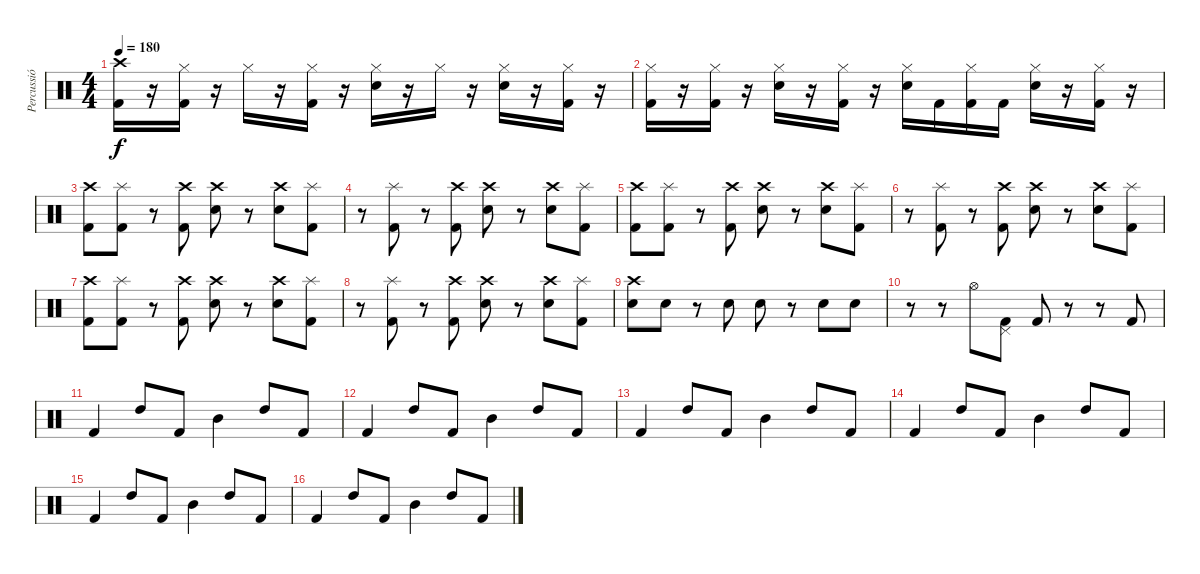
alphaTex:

\track ("Percussió" "Percussió") {instrument percussion}
\staff {score}
\articulation defaults
\ts (4 4)
\tempo 180
\clef neutral
\ks c
("Crash high (hit)" "Kick (hit) 2").16{dy f} r.16 ("Hi-Hat (closed)" "Kick (hit) 2").16 r.16 "Hi-Hat (closed)".16 r.16 ("Hi-Hat (closed)" "Kick (hit) 2").16 r.16 ("Hi-Hat (closed)" "Electric Snare (hit)").16 r.16 "Hi-Hat (closed)".16 r.16 ("Hi-Hat (closed)" "Electric Snare (hit)").16 r.16 ("Hi-Hat (closed)" "Kick (hit) 2").16 r.16 |
("Hi-Hat (closed)" "Kick (hit) 2").16 r.16 ("Hi-Hat (closed)" "Kick (hit) 2").16 r.16 ("Hi-Hat (closed)" "Electric Snare (hit)").16 r.16 ("Hi-Hat (closed)" "Kick (hit) 2").16 r.16 ("Hi-Hat (closed)" "Electric Snare (hit)").16 "Kick (hit) 2".16 ("Hi-Hat (closed)" "Kick (hit) 2").16 "Kick (hit) 2".16 ("Hi-Hat (closed)" "Electric Snare (hit)").16 r.16 ("Hi-Hat (closed)" "Kick (hit) 2").16 r.16 |
("Crash high (hit)" "Kick (hit) 2").8 ("Splash (hit)" "Kick (hit) 2").8 r.8 ("Crash high (hit)" "Kick (hit) 2").8 ("Crash high (hit)" "Electric Snare (hit)").8 r.8 ("Crash high (hit)" "Electric Snare (hit)").8 ("Splash (hit)" "Kick (hit) 2").8 |
r.8 ("Splash (hit)" "Kick (hit) 2").8 r.8 ("Crash high (hit)" "Kick (hit) 2").8 ("Crash high (hit)" "Electric Snare (hit)").8 r.8 ("Crash high (hit)" "Electric Snare (hit)").8 ("Splash (hit)" "Kick (hit) 2").8 |
("Crash high (hit)" "Kick (hit) 2").8 ("Splash (hit)" "Kick (hit) 2").8 r.8 ("Crash high (hit)" "Kick (hit) 2").8 ("Crash high (hit)" "Electric Snare (hit)").8 r.8 ("Crash high (hit)" "Electric Snare (hit)").8 ("Splash (hit)" "Kick (hit) 2").8 |
r.8 ("Splash (hit)" "Kick (hit) 2").8 r.8 ("Crash high (hit)" "Kick (hit) 2").8 ("Crash high (hit)" "Electric Snare (hit)").8 r.8 ("Crash high (hit)" "Electric Snare (hit)").8 ("Splash (hit)" "Kick (hit) 2").8 |
("Crash high (hit)" "Kick (hit) 2").8 ("Splash (hit)" "Kick (hit) 2").8 r.8 ("Crash high (hit)" "Kick (hit) 2").8 ("Crash high (hit)" "Electric Snare (hit)").8 r.8 ("Crash high (hit)" "Electric Snare (hit)").8 ("Splash (hit)" "Kick (hit) 2").8 |
r.8 ("Splash (hit)" "Kick (hit) 2").8 r.8 ("Crash high (hit)" "Kick (hit) 2").8 ("Crash high (hit)" "Electric Snare (hit)").8 r.8 ("Crash high (hit)" "Electric Snare (hit)").8 ("Splash (hit)" "Kick (hit) 2").8 |
("Crash high (hit)" "Electric Snare (hit)").8 "Electric Snare (hit)".8 r.8 "Electric Snare (hit)".8 "Electric Snare (hit)".8 r.8 "Electric Snare (hit)".8 "Electric Snare (hit)".8 |
r.8 r.8 "Hi-Hat (open)".8 ("Pedal Hi-Hat (hit)" "Kick (hit) 2").8 "Kick (hit) 2".8 r.8 r.8 "Kick (hit) 2".8 |
"Kick (hit) 2".4 "High Tom (hit)".8 "Kick (hit) 2".8 "Mid Tom (hit)".4 "High Tom (hit)".8 "Kick (hit) 2".8 |
"Kick (hit) 2".4 "High Tom (hit)".8 "Kick (hit) 2".8 "Mid Tom (hit)".4 "High Tom (hit)".8 "Kick (hit) 2".8 |
"Kick (hit) 2".4 "High Tom (hit)".8 "Kick (hit) 2".8 "Mid Tom (hit)".4 "High Tom (hit)".8 "Kick (hit) 2".8 |
"Kick (hit) 2".4 "High Tom (hit)".8 "Kick (hit) 2".8 "Mid Tom (hit)".4 "High Tom (hit)".8 "Kick (hit) 2".8 |
"Kick (hit) 2".4 "High Tom (hit)".8 "Kick (hit) 2".8 "Mid Tom (hit)".4 "High Tom (hit)".8 "Kick (hit) 2".8 |
"Kick (hit) 2".4 "High Tom (hit)".8 "Kick (hit) 2".8 "Mid Tom (hit)".4 "High Tom (hit)".8 "Kick (hit) 2".8
